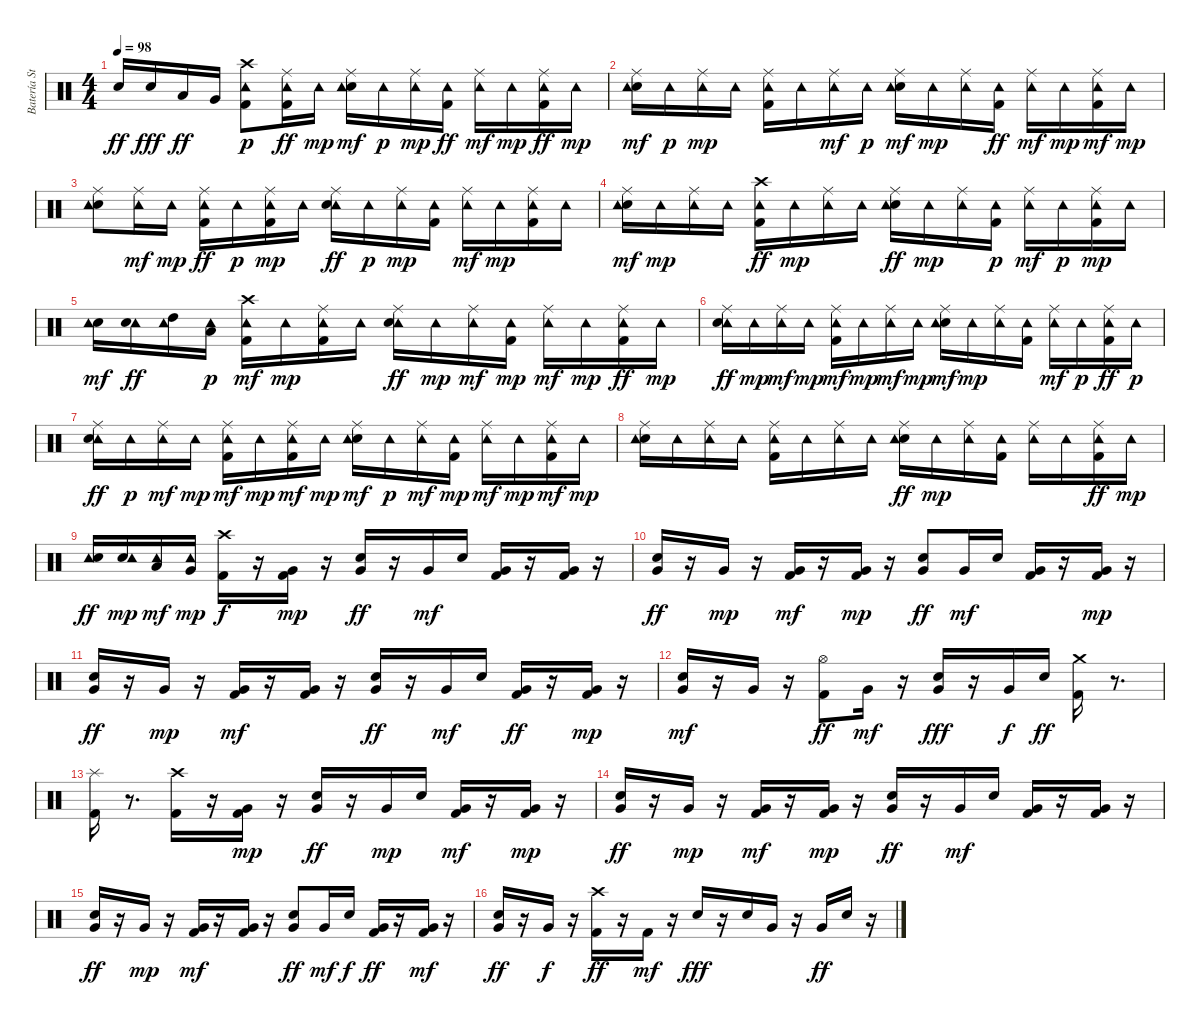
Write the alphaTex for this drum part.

\track ("Batería Standard" "Batería St") {instrument percussion}
\staff {score}
\articulation defaults
\ts (4 4)
\tempo 98
\clef neutral
\ks c "Electric Snare (hit)".16{dy ff} "Electric Snare (hit)".16{dy fff} "Low Tom (hit)".16{dy ff} "Very Low Tom (hit)".16
("Kick (hit) 2" "Crash high (hit)" "Tambourine (hit)").8{dy p} ("Ride (middle)" "Tambourine (hit)" "Kick (hit) 2").16{dy ff} "Tambourine (hit)".16{dy mp} ("Electric Snare (hit)" "Ride (middle)" "Tambourine (hit)").16{dy mf} "Tambourine (hit)".16{dy p} ("Tambourine (hit)" "Ride (middle)").16{dy mp} ("Tambourine (hit)" "Kick (hit) 2").16{dy ff} ("Ride (middle)" "Tambourine (hit)").16{dy mf} "Tambourine (hit)".16{dy mp} ("Tambourine (hit)" "Kick (hit) 2" "Ride (middle)").16{dy ff} "Tambourine (hit)".16{dy mp} |
("Electric Snare (hit)" "Tambourine (hit)" "Ride (middle)").16{dy mf} "Tambourine (hit)".16{dy p} ("Ride (middle)" "Tambourine (hit)").16{dy mp} "Tambourine (hit)".16 ("Ride (middle)" "Kick (hit) 2" "Tambourine (hit)").16 "Tambourine (hit)".16 ("Tambourine (hit)" "Ride (middle)").16{dy mf} "Tambourine (hit)".16{dy p} ("Electric Snare (hit)" "Ride (middle)" "Tambourine (hit)").16{dy mf} "Tambourine (hit)".16{dy mp} ("Tambourine (hit)" "Ride (middle)").16 ("Tambourine (hit)" "Kick (hit) 2").16{dy ff} ("Ride (middle)" "Tambourine (hit)").16{dy mf} "Tambourine (hit)".16{dy mp} ("Tambourine (hit)" "Kick (hit) 2" "Ride (middle)").16{dy mf} "Tambourine (hit)".16{dy mp} |
("Electric Snare (hit)" "Ride (middle)" "Tambourine (hit)").8 ("Tambourine (hit)" "Ride (middle)").16{dy mf} "Tambourine (hit)".16{dy mp} ("Tambourine (hit)" "Ride (middle)" "Kick (hit) 2").16{dy ff} "Tambourine (hit)".16{dy p} ("Kick (hit) 2" "Ride (middle)" "Tambourine (hit)").16{dy mp} "Tambourine (hit)".16 ("Ride (middle)" "Tambourine (hit)" "Electric Snare (hit)").16{dy ff} "Tambourine (hit)".16{dy p} ("Ride (middle)" "Tambourine (hit)").16{dy mp} ("Kick (hit) 2" "Tambourine (hit)").16 ("Tambourine (hit)" "Ride (middle)").16{dy mf} "Tambourine (hit)".16{dy mp} ("Ride (middle)" "Kick (hit) 2" "Tambourine (hit)").16 "Tambourine (hit)".16 |
("Electric Snare (hit)" "Tambourine (hit)" "Ride (middle)").16{dy mf} "Tambourine (hit)".16{dy mp} ("Tambourine (hit)" "Ride (middle)").16 "Tambourine (hit)".16 ("Kick (hit) 2" "Tambourine (hit)" "Crash high (hit)").16{dy ff} "Tambourine (hit)".16{dy mp} ("Ride (middle)" "Tambourine (hit)").16 "Tambourine (hit)".16 ("Electric Snare (hit)" "Tambourine (hit)" "Ride (middle)").16{dy ff} "Tambourine (hit)".16{dy mp} ("Ride (middle)" "Tambourine (hit)").16 ("Kick (hit) 2" "Tambourine (hit)").16{dy p} ("Ride (middle)" "Tambourine (hit)").16{dy mf} "Tambourine (hit)".16{dy p} ("Ride (middle)" "Kick (hit) 2" "Tambourine (hit)").16{dy mp} "Tambourine (hit)".16 |
("Electric Snare (hit)" "Tambourine (hit)").16{dy mf} ("Tambourine (hit)" "Electric Snare (hit)").16{dy ff} ("Tambourine (hit)" "High Tom (hit)").16 ("Low Tom (hit)" "Tambourine (hit)").16{dy p} ("Crash high (hit)" "Kick (hit) 2" "Tambourine (hit)").16{dy mf} "Tambourine (hit)".16{dy mp} ("Ride (middle)" "Tambourine (hit)" "Kick (hit) 2").16 "Tambourine (hit)".16 ("Ride (middle)" "Tambourine (hit)" "Electric Snare (hit)").16{dy ff} "Tambourine (hit)".16{dy mp} ("Tambourine (hit)" "Ride (middle)").16{dy mf} ("Kick (hit) 2" "Tambourine (hit)").16{dy mp} ("Ride (middle)" "Tambourine (hit)").16{dy mf} "Tambourine (hit)".16{dy mp} ("Tambourine (hit)" "Ride (middle)" "Kick (hit) 2").16{dy ff} "Tambourine (hit)".16{dy mp} |
("Tambourine (hit)" "Electric Snare (hit)" "Ride (middle)").16{dy ff} "Tambourine (hit)".16{dy mp} ("Tambourine (hit)" "Ride (middle)").16{dy mf} "Tambourine (hit)".16{dy mp} ("Kick (hit) 2" "Ride (middle)" "Tambourine (hit)").16{dy mf} "Tambourine (hit)".16{dy mp} ("Tambourine (hit)" "Ride (middle)").16{dy mf} "Tambourine (hit)".16{dy mp} ("Electric Snare (hit)" "Ride (middle)" "Tambourine (hit)").16{dy mf} "Tambourine (hit)".16{dy mp} ("Tambourine (hit)" "Ride (middle)").16 ("Kick (hit) 2" "Tambourine (hit)").16 ("Ride (middle)" "Tambourine (hit)").16{dy mf} "Tambourine (hit)".16{dy p} ("Tambourine (hit)" "Ride (middle)" "Kick (hit) 2").16{dy ff} "Tambourine (hit)".16{dy p} |
("Tambourine (hit)" "Electric Snare (hit)" "Ride (middle)").16{dy ff} "Tambourine (hit)".16{dy p} ("Tambourine (hit)" "Ride (middle)").16{dy mf} "Tambourine (hit)".16{dy mp} ("Kick (hit) 2" "Ride (middle)" "Tambourine (hit)").16{dy mf} "Tambourine (hit)".16{dy mp} ("Tambourine (hit)" "Kick (hit) 2" "Ride (middle)").16{dy mf} "Tambourine (hit)".16{dy mp} ("Electric Snare (hit)" "Ride (middle)" "Tambourine (hit)").16{dy mf} "Tambourine (hit)".16{dy p} ("Tambourine (hit)" "Ride (middle)").16{dy mf} ("Kick (hit) 2" "Tambourine (hit)").16{dy mp} ("Tambourine (hit)" "Ride (middle)").16{dy mf} "Tambourine (hit)".16{dy mp} ("Kick (hit) 2" "Ride (middle)" "Tambourine (hit)").16{dy mf} "Tambourine (hit)".16{dy mp} |
("Electric Snare (hit)" "Tambourine (hit)" "Ride (middle)").16 "Tambourine (hit)".16 ("Ride (middle)" "Tambourine (hit)").16 "Tambourine (hit)".16 ("Kick (hit) 2" "Tambourine (hit)" "Ride (middle)").16 "Tambourine (hit)".16 ("Tambourine (hit)" "Ride (middle)").16 "Tambourine (hit)".16 ("Electric Snare (hit)" "Tambourine (hit)" "Ride (middle)").16{dy ff} "Tambourine (hit)".16{dy mp} ("Tambourine (hit)" "Ride (middle)").16 ("Kick (hit) 2" "Tambourine (hit)").16 ("Ride (middle)" "Tambourine (hit)").16 "Tambourine (hit)".16 ("Tambourine (hit)" "Ride (middle)" "Kick (hit) 2").16{dy ff} "Tambourine (hit)".16{dy mp} |
("Tambourine (hit)" "Electric Snare (hit)").16{dy ff} ("Electric Snare (hit)" "Tambourine (hit)").16{dy mp} ("Low Tom (hit)" "Tambourine (hit)").16{dy mf} ("Very Low Tom (hit)" "Tambourine (hit)").16{dy mp} ("Crash high (hit)" "Kick (hit) 2").16{dy f} r.16 ("Kick (hit) 2" "Very Low Tom (hit)").16{dy mp} r.16 ("Very Low Tom (hit)" "Electric Snare (hit)").16{dy ff} r.16 "Very Low Tom (hit)".16{dy mf} "Electric Snare (hit)".16 ("Very Low Tom (hit)" "Kick (hit) 2").16 r.16 ("Very Low Tom (hit)" "Kick (hit) 2").16 r.16 |
("Electric Snare (hit)" "Very Low Tom (hit)").16{dy ff} r.16 "Very Low Tom (hit)".16{dy mp} r.16 ("Kick (hit) 2" "Very Low Tom (hit)").16{dy mf} r.16 ("Very Low Tom (hit)" "Kick (hit) 2").16{dy mp} r.16 ("Electric Snare (hit)" "Very Low Tom (hit)").8{dy ff} "Very Low Tom (hit)".16{dy mf} "Electric Snare (hit)".16 ("Very Low Tom (hit)" "Kick (hit) 2").16 r.16 ("Very Low Tom (hit)" "Kick (hit) 2").16{dy mp} r.16 |
("Very Low Tom (hit)" "Electric Snare (hit)").16{dy ff} r.16 "Very Low Tom (hit)".16{dy mp} r.16 ("Kick (hit) 2" "Very Low Tom (hit)").16{dy mf} r.16 ("Very Low Tom (hit)" "Kick (hit) 2").16 r.16 ("Electric Snare (hit)" "Very Low Tom (hit)").16{dy ff} r.16 "Very Low Tom (hit)".16{dy mf} "Electric Snare (hit)".16 ("Very Low Tom (hit)" "Kick (hit) 2").16{dy ff} r.16 ("Very Low Tom (hit)" "Kick (hit) 2").16{dy mp} r.16 |
("Electric Snare (hit)" "Very Low Tom (hit)").16{dy mf} r.16 "Very Low Tom (hit)".16 r.16 ("Hi-Hat (open)" "Kick (hit) 2").8{dy ff} "Very Low Tom (hit)".16{dy mf} r.16 ("Very Low Tom (hit)" "Electric Snare (hit)").16{dy fff} r.16 "Very Low Tom (hit)".16{dy f} "Electric Snare (hit)".16{dy ff} ("Crash medium (hit)" "Kick (hit) 2").16 r.8{d} |
("Splash (hit)" "Kick (hit) 2").16 r.8{d} ("Crash high (hit)" "Kick (hit) 2").16 r.16 ("Kick (hit) 2" "Very Low Tom (hit)").16{dy mp} r.16 ("Very Low Tom (hit)" "Electric Snare (hit)").16{dy ff} r.16 "Very Low Tom (hit)".16{dy mp} "Electric Snare (hit)".16 ("Very Low Tom (hit)" "Kick (hit) 2").16{dy mf} r.16 ("Kick (hit) 2" "Very Low Tom (hit)").16{dy mp} r.16 |
("Very Low Tom (hit)" "Electric Snare (hit)").16{dy ff} r.16 "Very Low Tom (hit)".16{dy mp} r.16 ("Very Low Tom (hit)" "Kick (hit) 2").16{dy mf} r.16 ("Kick (hit) 2" "Very Low Tom (hit)").16{dy mp} r.16 ("Electric Snare (hit)" "Very Low Tom (hit)").16{dy ff} r.16 "Very Low Tom (hit)".16{dy mf} "Electric Snare (hit)".16 ("Very Low Tom (hit)" "Kick (hit) 2").16 r.16 ("Very Low Tom (hit)" "Kick (hit) 2").16 r.16 |
("Very Low Tom (hit)" "Electric Snare (hit)").16{dy ff} r.16 "Very Low Tom (hit)".16{dy mp} r.16 ("Kick (hit) 2" "Very Low Tom (hit)").16{dy mf} r.16 ("Very Low Tom (hit)" "Kick (hit) 2").16 r.16 ("Electric Snare (hit)" "Very Low Tom (hit)").8{dy ff} "Very Low Tom (hit)".16{dy mf} "Electric Snare (hit)".16{dy f} ("Very Low Tom (hit)" "Kick (hit) 2").16{dy ff} r.16 ("Kick (hit) 2" "Very Low Tom (hit)").16{dy mf} r.16 |
("Electric Snare (hit)" "Very Low Tom (hit)").16{dy ff} r.16 "Very Low Tom (hit)".16{dy f} r.16 ("Crash high (hit)" "Kick (hit) 2").16{dy ff} r.16 "Kick (hit) 2".16{dy mf} r.16 "Electric Snare (hit)".16{dy fff} r.16 "Electric Snare (hit)".16 "Very Low Tom (hit)".16 r.16 "Very Low Tom (hit)".16{dy ff} "Electric Snare (hit)".16 r.16
